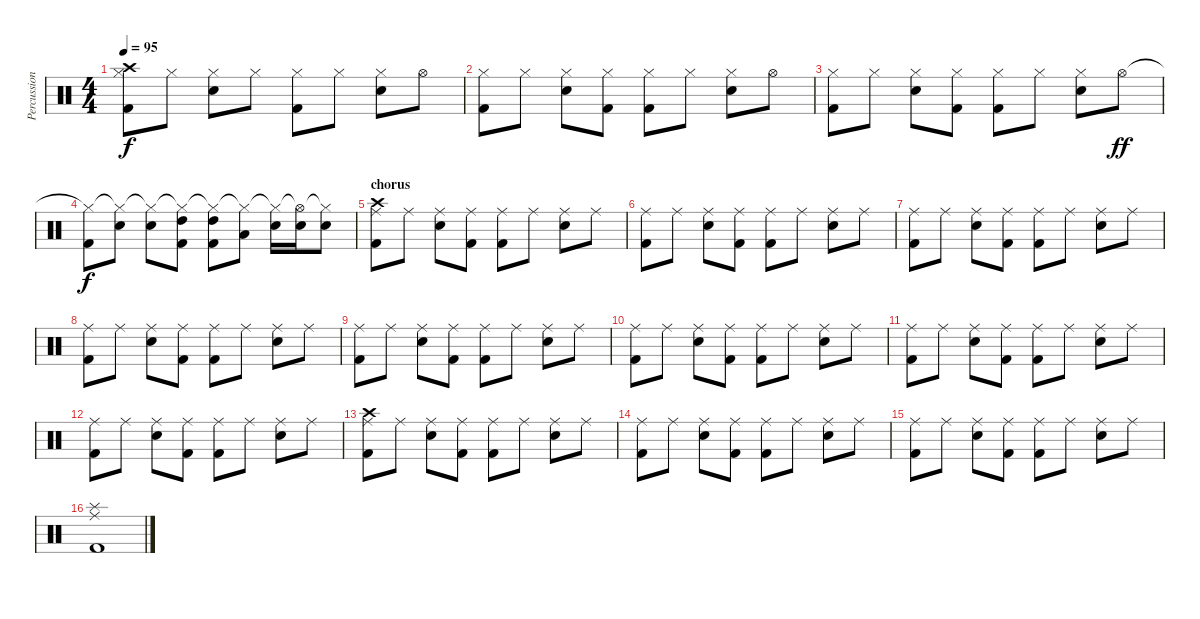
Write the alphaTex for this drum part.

\track ("Percussion" "Percussion") {instrument percussion}
\staff {score}
\articulation defaults
\ts (4 4)
\tempo 95
\clef neutral
\ks c
("Hi-Hat (closed)" "Crash high (hit)" "Kick (hit) 2").8{dy f} "Hi-Hat (closed)".8 ("Hi-Hat (closed)" "Snare (hit) 2").8 "Hi-Hat (closed)".8 ("Hi-Hat (closed)" "Kick (hit) 2").8 "Hi-Hat (closed)".8 ("Hi-Hat (closed)" "Snare (hit) 2").8 "Hi-Hat (open)".8 |
("Hi-Hat (closed)" "Kick (hit) 2").8 "Hi-Hat (closed)".8 ("Hi-Hat (closed)" "Snare (hit) 2").8 ("Hi-Hat (closed)" "Kick (hit) 2").8 ("Hi-Hat (closed)" "Kick (hit) 2").8 "Hi-Hat (closed)".8 ("Hi-Hat (closed)" "Snare (hit) 2").8 "Hi-Hat (open)".8 |
("Hi-Hat (closed)" "Kick (hit) 2").8 "Hi-Hat (closed)".8 ("Hi-Hat (closed)" "Snare (hit) 2").8 ("Hi-Hat (closed)" "Kick (hit) 2").8 ("Hi-Hat (closed)" "Kick (hit) 2").8 "Hi-Hat (closed)".8 ("Hi-Hat (closed)" "Snare (hit) 2").8 "Hi-Hat (open)".8{dy ff} |
("Hi-Hat (closed)"{t} "Kick (hit) 2").8{dy f} ("Hi-Hat (closed)"{t} "Snare (hit) 2").8 ("Hi-Hat (closed)"{t} "Snare (hit) 2").8 ("Hi-Hat (closed)"{t} "High Tom (hit)" "Kick (hit) 2").8 ("Hi-Hat (closed)"{t} "High Tom (hit)" "Kick (hit) 2").8 ("Hi-Hat (closed)"{t} "Low Tom (hit)").8 ("Hi-Hat (closed)"{t} "Snare (hit) 2").16 ("Hi-Hat (open)"{t} "Snare (hit) 2").16 ("Hi-Hat (closed)"{t} "Snare (hit) 2").8 |
\section ("" "chorus")
("Ride (middle)" "Crash high (hit)" "Kick (hit) 2").8 "Ride (middle)".8 ("Ride (middle)" "Snare (hit) 2").8 ("Ride (middle)" "Kick (hit) 2").8 ("Ride (middle)" "Kick (hit) 2").8 "Ride (middle)".8 ("Ride (middle)" "Snare (hit) 2").8 "Ride (middle)".8 |
("Ride (middle)" "Kick (hit) 2").8 "Ride (middle)".8 ("Ride (middle)" "Snare (hit) 2").8 ("Ride (middle)" "Kick (hit) 2").8 ("Ride (middle)" "Kick (hit) 2").8 "Ride (middle)".8 ("Ride (middle)" "Snare (hit) 2").8 "Ride (middle)".8 |
("Ride (middle)" "Kick (hit) 2").8 "Ride (middle)".8 ("Ride (middle)" "Snare (hit) 2").8 ("Ride (middle)" "Kick (hit) 2").8 ("Ride (middle)" "Kick (hit) 2").8 "Ride (middle)".8 ("Ride (middle)" "Snare (hit) 2").8 "Ride (middle)".8 |
("Ride (middle)" "Kick (hit) 2").8 "Ride (middle)".8 ("Ride (middle)" "Snare (hit) 2").8 ("Ride (middle)" "Kick (hit) 2").8 ("Ride (middle)" "Kick (hit) 2").8 "Ride (middle)".8 ("Ride (middle)" "Snare (hit) 2").8 "Ride (middle)".8 |
("Ride (middle)" "Kick (hit) 2").8 "Ride (middle)".8 ("Ride (middle)" "Snare (hit) 2").8 ("Ride (middle)" "Kick (hit) 2").8 ("Ride (middle)" "Kick (hit) 2").8 "Ride (middle)".8 ("Ride (middle)" "Snare (hit) 2").8 "Ride (middle)".8 |
("Ride (middle)" "Kick (hit) 2").8 "Ride (middle)".8 ("Ride (middle)" "Snare (hit) 2").8 ("Ride (middle)" "Kick (hit) 2").8 ("Ride (middle)" "Kick (hit) 2").8 "Ride (middle)".8 ("Ride (middle)" "Snare (hit) 2").8 "Ride (middle)".8 |
("Ride (middle)" "Kick (hit) 2").8 "Ride (middle)".8 ("Ride (middle)" "Snare (hit) 2").8 ("Ride (middle)" "Kick (hit) 2").8 ("Ride (middle)" "Kick (hit) 2").8 "Ride (middle)".8 ("Ride (middle)" "Snare (hit) 2").8 "Ride (middle)".8 |
("Ride (middle)" "Kick (hit) 2").8 "Ride (middle)".8 ("Ride (middle)" "Snare (hit) 2").8 ("Ride (middle)" "Kick (hit) 2").8 ("Ride (middle)" "Kick (hit) 2").8 "Ride (middle)".8 ("Ride (middle)" "Snare (hit) 2").8 "Ride (middle)".8 |
("Ride (middle)" "Crash high (hit)" "Kick (hit) 2").8 "Ride (middle)".8 ("Ride (middle)" "Snare (hit) 2").8 ("Ride (middle)" "Kick (hit) 2").8 ("Ride (middle)" "Kick (hit) 2").8 "Ride (middle)".8 ("Ride (middle)" "Snare (hit) 2").8 "Ride (middle)".8 |
("Ride (middle)" "Kick (hit) 2").8 "Ride (middle)".8 ("Ride (middle)" "Snare (hit) 2").8 ("Ride (middle)" "Kick (hit) 2").8 ("Ride (middle)" "Kick (hit) 2").8 "Ride (middle)".8 ("Ride (middle)" "Snare (hit) 2").8 "Ride (middle)".8 |
("Ride (middle)" "Kick (hit) 2").8 "Ride (middle)".8 ("Ride (middle)" "Snare (hit) 2").8 ("Ride (middle)" "Kick (hit) 2").8 ("Ride (middle)" "Kick (hit) 2").8 "Ride (middle)".8 ("Ride (middle)" "Snare (hit) 2").8 "Ride (middle)".8 |
("Ride (middle)" "Splash (hit)" "Kick (hit) 2").1
